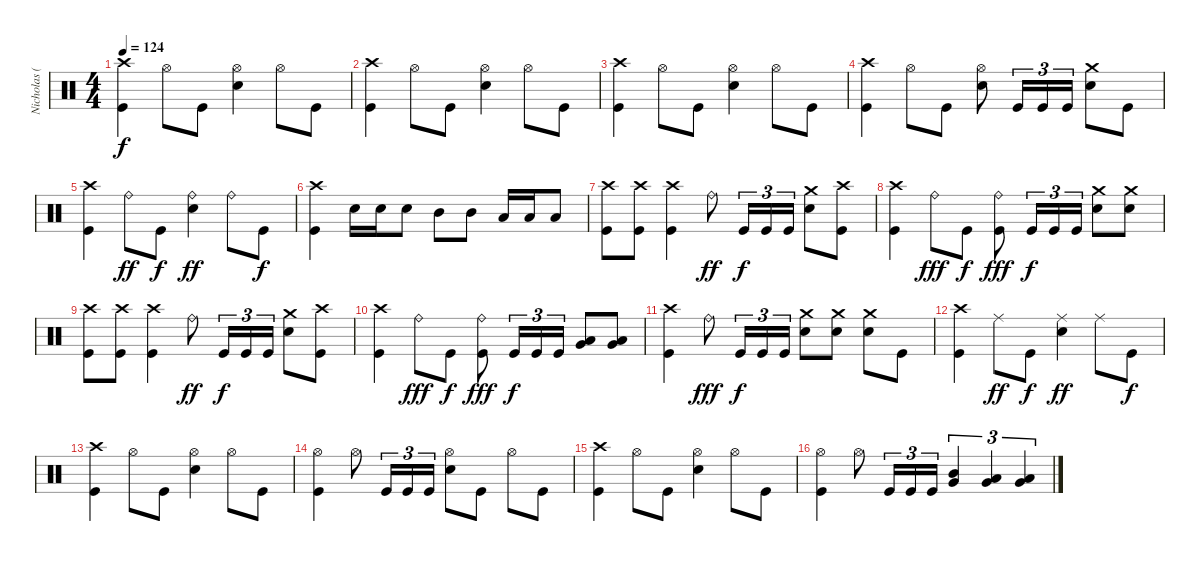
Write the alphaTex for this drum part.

\track ("Nicholas (Drums)" "Nicholas (") {instrument percussion}
\staff {score}
\articulation defaults
\ts (4 4)
\tempo 124
\clef neutral
\ks c
("Crash high (hit)" "Kick (hit)").4{dy f} "Hi-Hat (open)".8 "Kick (hit)".8 ("Hi-Hat (open)" "Electric Snare (hit)").4 "Hi-Hat (open)".8 "Kick (hit)".8 |
("Crash high (hit)" "Kick (hit)").4 "Hi-Hat (open)".8 "Kick (hit)".8 ("Hi-Hat (open)" "Electric Snare (hit)").4 "Hi-Hat (open)".8 "Kick (hit)".8 |
("Crash high (hit)" "Kick (hit)").4 "Hi-Hat (open)".8 "Kick (hit)".8 ("Hi-Hat (open)" "Electric Snare (hit)").4 "Hi-Hat (open)".8 "Kick (hit)".8 |
("Crash high (hit)" "Kick (hit)").4 "Hi-Hat (open)".8 "Kick (hit)".8 ("Hi-Hat (open)" "Electric Snare (hit)").8 "Kick (hit)".16{tu (3 2)} "Kick (hit)".16{tu (3 2)} "Kick (hit)".16{tu (3 2)} ("Crash medium (hit)" "Electric Snare (hit)").8 "Kick (hit)".8 |
("Crash high (hit)" "Kick (hit)").4 "Ride (bell)".8{dy ff} "Kick (hit)".8{dy f} ("Ride (bell)" "Electric Snare (hit)").4{dy ff} "Ride (bell)".8 "Kick (hit)".8{dy f} |
("Crash high (hit)" "Kick (hit)").4 "Electric Snare (hit)".16 "Electric Snare (hit)".16 "Electric Snare (hit)".8 "Mid Tom (hit)".8 "Mid Tom (hit)".8 "Low Tom (hit)".16 "Low Tom (hit)".16 "Low Tom (hit)".8 |
("Crash high (hit)" "Kick (hit)").8 ("Crash high (hit)" "Kick (hit)").8 ("Crash high (hit)" "Kick (hit)").4 "Ride (bell)".8{dy ff} "Kick (hit)".16{tu (3 2) dy f} "Kick (hit)".16{tu (3 2)} "Kick (hit)".16{tu (3 2)} ("Crash medium (hit)" "Electric Snare (hit)").8 ("Crash high (hit)" "Kick (hit)").8 |
("Crash high (hit)" "Kick (hit)").4 "Ride (bell)".8{dy fff} "Kick (hit)".8{dy f} ("Ride (bell)" "Kick (hit)").8{dy fff} "Kick (hit)".16{tu (3 2) dy f} "Kick (hit)".16{tu (3 2)} "Kick (hit)".16{tu (3 2)} ("Crash medium (hit)" "Electric Snare (hit)").8 ("Crash medium (hit)" "Electric Snare (hit)").8 |
("Crash high (hit)" "Kick (hit)").8 ("Crash high (hit)" "Kick (hit)").8 ("Crash high (hit)" "Kick (hit)").4 "Ride (bell)".8{dy ff} "Kick (hit)".16{tu (3 2) dy f} "Kick (hit)".16{tu (3 2)} "Kick (hit)".16{tu (3 2)} ("Crash medium (hit)" "Electric Snare (hit)").8 ("Crash high (hit)" "Kick (hit)").8 |
("Crash high (hit)" "Kick (hit)").4 "Ride (bell)".8{dy fff} "Kick (hit)".8{dy f} ("Ride (bell)" "Kick (hit)").8{dy fff} "Kick (hit)".16{tu (3 2) dy f} "Kick (hit)".16{tu (3 2)} "Kick (hit)".16{tu (3 2)} ("Low Tom (hit)" "Very Low Tom (hit)").8{bu 60} ("Low Tom (hit)" "Very Low Tom (hit)").8{bu 60} |
("Crash high (hit)" "Kick (hit)").4 "Ride (bell)".8{dy fff} "Kick (hit)".16{tu (3 2) dy f} "Kick (hit)".16{tu (3 2)} "Kick (hit)".16{tu (3 2)} ("Crash medium (hit)" "Electric Snare (hit)").8 ("Crash medium (hit)" "Electric Snare (hit)").8 ("Crash medium (hit)" "Electric Snare (hit)").8 "Kick (hit)".8 |
("Crash high (hit)" "Kick (hit)").4 "Ride (middle)".8{dy ff} "Kick (hit)".8{dy f} ("Ride (middle)" "Electric Snare (hit)").4{dy ff} "Ride (middle)".8 "Kick (hit)".8{dy f} |
("Crash high (hit)" "Kick (hit)").4 "Hi-Hat (open)".8 "Kick (hit)".8 ("Hi-Hat (open)" "Electric Snare (hit)").4 "Hi-Hat (open)".8 "Kick (hit)".8 |
("Hi-Hat (open)" "Kick (hit)").4 "Hi-Hat (open)".8 "Kick (hit)".16{tu (3 2)} "Kick (hit)".16{tu (3 2)} "Kick (hit)".16{tu (3 2)} ("Hi-Hat (open)" "Electric Snare (hit)").8 "Kick (hit)".8 "Hi-Hat (open)".8 "Kick (hit)".8 |
("Crash high (hit)" "Kick (hit)").4 "Hi-Hat (open)".8 "Kick (hit)".8 ("Hi-Hat (open)" "Electric Snare (hit)").4 "Hi-Hat (open)".8 "Kick (hit)".8 |
("Hi-Hat (open)" "Kick (hit)").4 "Hi-Hat (open)".8 "Kick (hit)".16{tu (3 2)} "Kick (hit)".16{tu (3 2)} "Kick (hit)".16{tu (3 2)} ("Mid Tom (hit)" "Very Low Tom (hit)").4{tu (3 2) bu 60} ("Low Tom (hit)" "Very Low Tom (hit)").4{tu (3 2) bu 60} ("Low Tom (hit)" "Very Low Tom (hit)").4{tu (3 2) bu 60}
